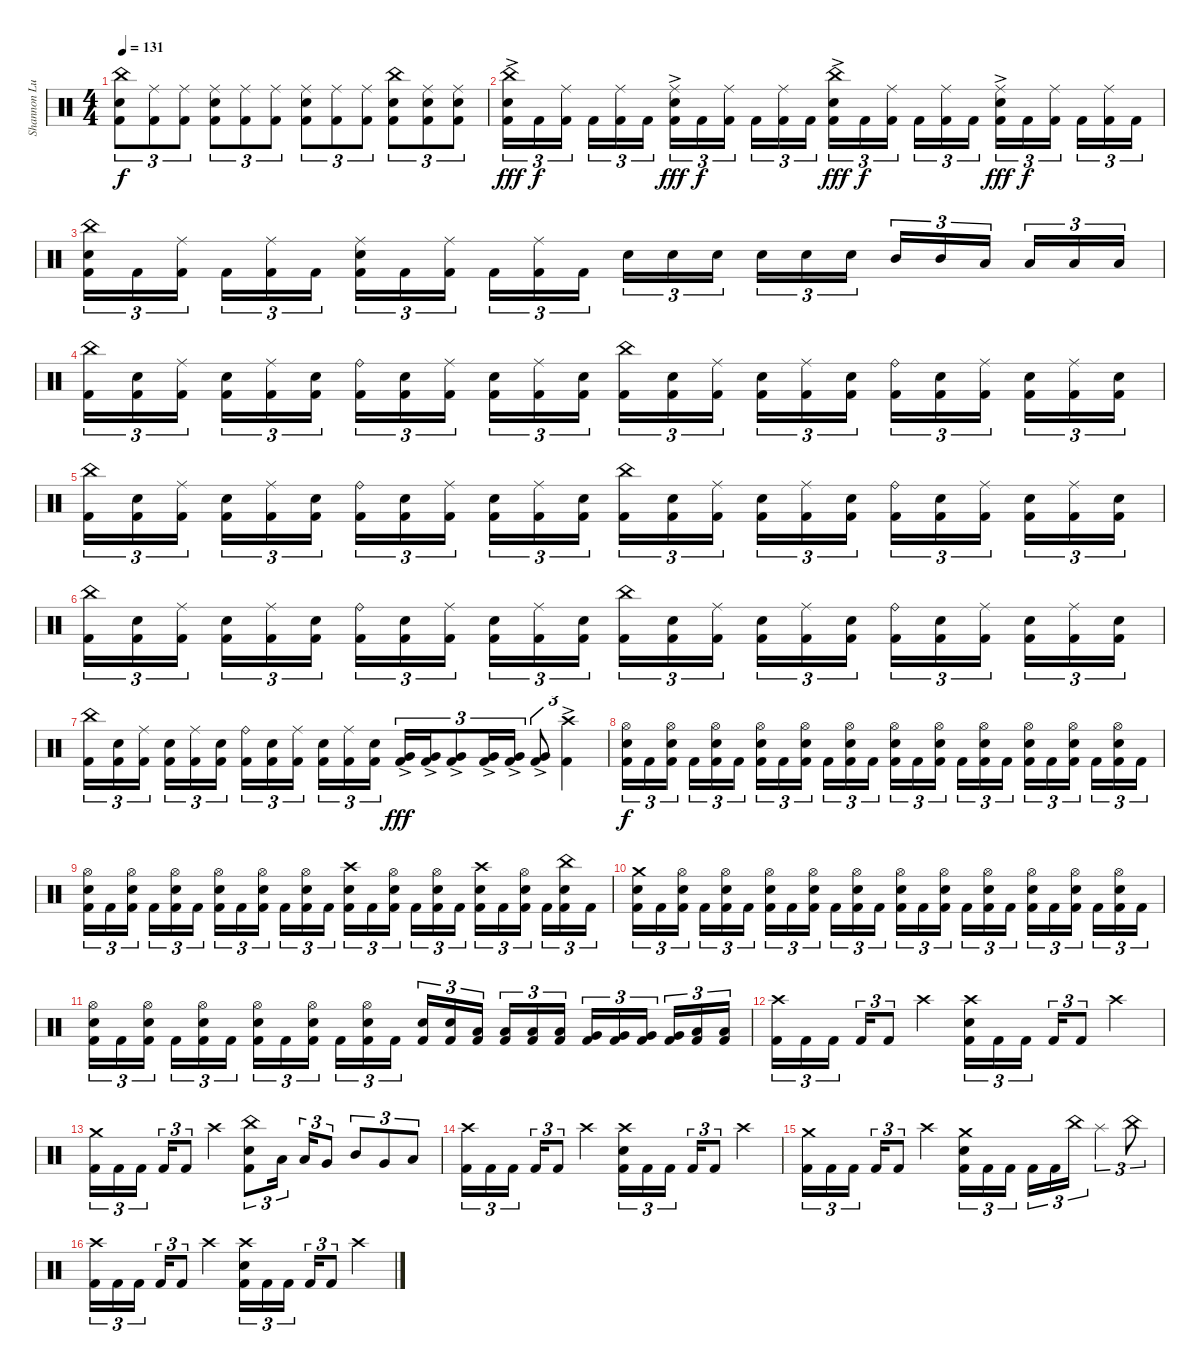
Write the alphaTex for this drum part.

\track ("Shannon Lucas [Drums (Since 2007)]" "Shannon Lu") {instrument percussion}
\staff {score}
\articulation defaults
\ts (4 4)
\tempo 131
\clef neutral
\ks c
("China (hit)" "Snare (hit) 2" "Kick (hit) 2").8{tu (3 2) dy f} ("Ride (middle)" "Kick (hit) 2").8{tu (3 2)} ("Ride (middle)" "Kick (hit) 2").8{tu (3 2)} ("Ride (middle)" "Snare (hit) 2" "Kick (hit) 2").8{tu (3 2)} ("Ride (middle)" "Kick (hit) 2").8{tu (3 2)} ("Ride (middle)" "Kick (hit) 2").8{tu (3 2)} ("Ride (middle)" "Snare (hit) 2" "Kick (hit) 2").8{tu (3 2)} ("Ride (middle)" "Kick (hit) 2").8{tu (3 2)} ("Ride (middle)" "Kick (hit) 2").8{tu (3 2)} ("China (hit)" "Snare (hit) 2" "Kick (hit) 2").8{tu (3 2)} ("Ride (middle)" "Snare (hit) 2" "Kick (hit) 2").8{tu (3 2)} ("Ride (middle)" "Snare (hit) 2" "Kick (hit) 2").8{tu (3 2)} |
("China (hit)"{ac} "Snare (hit) 2" "Kick (hit) 2").16{tu (3 2) dy fff} "Kick (hit) 2".16{tu (3 2) dy f} ("Ride (middle)" "Kick (hit) 2").16{tu (3 2)} "Kick (hit) 2".16{tu (3 2)} ("Ride (middle)" "Kick (hit) 2").16{tu (3 2)} "Kick (hit) 2".16{tu (3 2)} ("Ride (middle)"{ac} "Snare (hit) 2" "Kick (hit) 2").16{tu (3 2) dy fff} "Kick (hit) 2".16{tu (3 2) dy f} ("Ride (middle)" "Kick (hit) 2").16{tu (3 2)} "Kick (hit) 2".16{tu (3 2)} ("Ride (middle)" "Kick (hit) 2").16{tu (3 2)} "Kick (hit) 2".16{tu (3 2)} ("China (hit)"{ac} "Snare (hit) 2" "Kick (hit) 2").16{tu (3 2) dy fff} "Kick (hit) 2".16{tu (3 2) dy f} ("Ride (middle)" "Kick (hit) 2").16{tu (3 2)} "Kick (hit) 2".16{tu (3 2)} ("Ride (middle)" "Kick (hit) 2").16{tu (3 2)} "Kick (hit) 2".16{tu (3 2)} ("Ride (middle)"{ac} "Snare (hit) 2" "Kick (hit) 2").16{tu (3 2) dy fff} "Kick (hit) 2".16{tu (3 2) dy f} ("Ride (middle)" "Kick (hit) 2").16{tu (3 2)} "Kick (hit) 2".16{tu (3 2)} ("Ride (middle)" "Kick (hit) 2").16{tu (3 2)} "Kick (hit) 2".16{tu (3 2)} |
("China (hit)" "Snare (hit) 2" "Kick (hit) 2").16{tu (3 2)} "Kick (hit) 2".16{tu (3 2)} ("Ride (middle)" "Kick (hit) 2").16{tu (3 2)} "Kick (hit) 2".16{tu (3 2)} ("Ride (middle)" "Kick (hit) 2").16{tu (3 2)} "Kick (hit) 2".16{tu (3 2)} ("Ride (middle)" "Snare (hit) 2" "Kick (hit) 2").16{tu (3 2)} "Kick (hit) 2".16{tu (3 2)} ("Ride (middle)" "Kick (hit) 2").16{tu (3 2)} "Kick (hit) 2".16{tu (3 2)} ("Ride (middle)" "Kick (hit) 2").16{tu (3 2)} "Kick (hit) 2".16{tu (3 2)} "Snare (hit) 2".16{tu (3 2)} "Snare (hit) 2".16{tu (3 2)} "Snare (hit) 2".16{tu (3 2)} "Snare (hit) 2".16{tu (3 2)} "Snare (hit) 2".16{tu (3 2)} "Snare (hit) 2".16{tu (3 2)} "Mid Tom (hit)".16{tu (3 2)} "Mid Tom (hit)".16{tu (3 2)} "Low Tom (hit)".16{tu (3 2)} "Low Tom (hit)".16{tu (3 2)} "Low Floor Tom (hit)".16{tu (3 2)} "Low Floor Tom (hit)".16{tu (3 2)} |
("China (hit)" "Kick (hit) 2").16{tu (3 2)} ("Snare (hit) 2" "Kick (hit) 2").16{tu (3 2)} ("Ride (middle)" "Kick (hit) 2").16{tu (3 2)} ("Snare (hit) 2" "Kick (hit) 2").16{tu (3 2)} ("Ride (middle)" "Kick (hit) 2").16{tu (3 2)} ("Snare (hit) 2" "Kick (hit) 2").16{tu (3 2)} ("Ride (bell)" "Kick (hit) 2").16{tu (3 2)} ("Snare (hit) 2" "Kick (hit) 2").16{tu (3 2)} ("Ride (middle)" "Kick (hit) 2").16{tu (3 2)} ("Snare (hit) 2" "Kick (hit) 2").16{tu (3 2)} ("Ride (middle)" "Kick (hit) 2").16{tu (3 2)} ("Snare (hit) 2" "Kick (hit) 2").16{tu (3 2)} ("China (hit)" "Kick (hit) 2").16{tu (3 2)} ("Snare (hit) 2" "Kick (hit) 2").16{tu (3 2)} ("Ride (middle)" "Kick (hit) 2").16{tu (3 2)} ("Snare (hit) 2" "Kick (hit) 2").16{tu (3 2)} ("Ride (middle)" "Kick (hit) 2").16{tu (3 2)} ("Snare (hit) 2" "Kick (hit) 2").16{tu (3 2)} ("Ride (bell)" "Kick (hit) 2").16{tu (3 2)} ("Snare (hit) 2" "Kick (hit) 2").16{tu (3 2)} ("Ride (middle)" "Kick (hit) 2").16{tu (3 2)} ("Snare (hit) 2" "Kick (hit) 2").16{tu (3 2)} ("Ride (middle)" "Kick (hit) 2").16{tu (3 2)} ("Snare (hit) 2" "Kick (hit) 2").16{tu (3 2)} |
("China (hit)" "Kick (hit) 2").16{tu (3 2)} ("Snare (hit) 2" "Kick (hit) 2").16{tu (3 2)} ("Ride (middle)" "Kick (hit) 2").16{tu (3 2)} ("Snare (hit) 2" "Kick (hit) 2").16{tu (3 2)} ("Ride (middle)" "Kick (hit) 2").16{tu (3 2)} ("Snare (hit) 2" "Kick (hit) 2").16{tu (3 2)} ("Ride (bell)" "Kick (hit) 2").16{tu (3 2)} ("Snare (hit) 2" "Kick (hit) 2").16{tu (3 2)} ("Ride (middle)" "Kick (hit) 2").16{tu (3 2)} ("Snare (hit) 2" "Kick (hit) 2").16{tu (3 2)} ("Ride (middle)" "Kick (hit) 2").16{tu (3 2)} ("Snare (hit) 2" "Kick (hit) 2").16{tu (3 2)} ("China (hit)" "Kick (hit) 2").16{tu (3 2)} ("Snare (hit) 2" "Kick (hit) 2").16{tu (3 2)} ("Ride (middle)" "Kick (hit) 2").16{tu (3 2)} ("Snare (hit) 2" "Kick (hit) 2").16{tu (3 2)} ("Ride (middle)" "Kick (hit) 2").16{tu (3 2)} ("Snare (hit) 2" "Kick (hit) 2").16{tu (3 2)} ("Ride (bell)" "Kick (hit) 2").16{tu (3 2)} ("Snare (hit) 2" "Kick (hit) 2").16{tu (3 2)} ("Ride (middle)" "Kick (hit) 2").16{tu (3 2)} ("Snare (hit) 2" "Kick (hit) 2").16{tu (3 2)} ("Ride (middle)" "Kick (hit) 2").16{tu (3 2)} ("Snare (hit) 2" "Kick (hit) 2").16{tu (3 2)} |
("China (hit)" "Kick (hit) 2").16{tu (3 2)} ("Snare (hit) 2" "Kick (hit) 2").16{tu (3 2)} ("Ride (middle)" "Kick (hit) 2").16{tu (3 2)} ("Snare (hit) 2" "Kick (hit) 2").16{tu (3 2)} ("Ride (middle)" "Kick (hit) 2").16{tu (3 2)} ("Snare (hit) 2" "Kick (hit) 2").16{tu (3 2)} ("Ride (bell)" "Kick (hit) 2").16{tu (3 2)} ("Snare (hit) 2" "Kick (hit) 2").16{tu (3 2)} ("Ride (middle)" "Kick (hit) 2").16{tu (3 2)} ("Snare (hit) 2" "Kick (hit) 2").16{tu (3 2)} ("Ride (middle)" "Kick (hit) 2").16{tu (3 2)} ("Snare (hit) 2" "Kick (hit) 2").16{tu (3 2)} ("China (hit)" "Kick (hit) 2").16{tu (3 2)} ("Snare (hit) 2" "Kick (hit) 2").16{tu (3 2)} ("Ride (middle)" "Kick (hit) 2").16{tu (3 2)} ("Snare (hit) 2" "Kick (hit) 2").16{tu (3 2)} ("Ride (middle)" "Kick (hit) 2").16{tu (3 2)} ("Snare (hit) 2" "Kick (hit) 2").16{tu (3 2)} ("Ride (bell)" "Kick (hit) 2").16{tu (3 2)} ("Snare (hit) 2" "Kick (hit) 2").16{tu (3 2)} ("Ride (middle)" "Kick (hit) 2").16{tu (3 2)} ("Snare (hit) 2" "Kick (hit) 2").16{tu (3 2)} ("Ride (middle)" "Kick (hit) 2").16{tu (3 2)} ("Snare (hit) 2" "Kick (hit) 2").16{tu (3 2)} |
("China (hit)" "Kick (hit) 2").16{tu (3 2)} ("Snare (hit) 2" "Kick (hit) 2").16{tu (3 2)} ("Ride (middle)" "Kick (hit) 2").16{tu (3 2)} ("Snare (hit) 2" "Kick (hit) 2").16{tu (3 2)} ("Ride (middle)" "Kick (hit) 2").16{tu (3 2)} ("Snare (hit) 2" "Kick (hit) 2").16{tu (3 2)} ("Ride (bell)" "Kick (hit) 2").16{tu (3 2)} ("Snare (hit) 2" "Kick (hit) 2").16{tu (3 2)} ("Ride (middle)" "Kick (hit) 2").16{tu (3 2)} ("Snare (hit) 2" "Kick (hit) 2").16{tu (3 2)} ("Ride (middle)" "Kick (hit) 2").16{tu (3 2)} ("Snare (hit) 2" "Kick (hit) 2").16{tu (3 2)} ("Very Low Tom (hit)"{ac} "Kick (hit) 2"{ac}).16{tu (3 2) dy fff} ("Very Low Tom (hit)"{ac} "Kick (hit) 2"{ac}).16{tu (3 2)} ("Very Low Tom (hit)"{ac} "Kick (hit) 2"{ac}).8{tu (3 2)} ("Very Low Tom (hit)"{ac} "Kick (hit) 2"{ac}).16{tu (3 2)} ("Very Low Tom (hit)"{ac} "Kick (hit) 2"{ac}).16{tu (3 2)} ("Very Low Tom (hit)"{ac} "Kick (hit) 2"{ac}).8{tu (3 2)} ("Crash high (hit)"{ac} "Kick (hit) 2"{ac}).4{tu (3 2)} |
("Hi-Hat (open)" "Snare (hit) 2" "Kick (hit) 2").16{tu (3 2) dy f} "Kick (hit) 2".16{tu (3 2)} ("Hi-Hat (open)" "Snare (hit) 2" "Kick (hit) 2").16{tu (3 2)} "Kick (hit) 2".16{tu (3 2)} ("Hi-Hat (open)" "Snare (hit) 2" "Kick (hit) 2").16{tu (3 2)} "Kick (hit) 2".16{tu (3 2)} ("Hi-Hat (open)" "Snare (hit) 2" "Kick (hit) 2").16{tu (3 2)} "Kick (hit) 2".16{tu (3 2)} ("Hi-Hat (open)" "Snare (hit) 2" "Kick (hit) 2").16{tu (3 2)} "Kick (hit) 2".16{tu (3 2)} ("Hi-Hat (open)" "Snare (hit) 2" "Kick (hit) 2").16{tu (3 2)} "Kick (hit) 2".16{tu (3 2)} ("Hi-Hat (open)" "Snare (hit) 2" "Kick (hit) 2").16{tu (3 2)} "Kick (hit) 2".16{tu (3 2)} ("Hi-Hat (open)" "Snare (hit) 2" "Kick (hit) 2").16{tu (3 2)} "Kick (hit) 2".16{tu (3 2)} ("Hi-Hat (open)" "Snare (hit) 2" "Kick (hit) 2").16{tu (3 2)} "Kick (hit) 2".16{tu (3 2)} ("Hi-Hat (open)" "Snare (hit) 2" "Kick (hit) 2").16{tu (3 2)} "Kick (hit) 2".16{tu (3 2)} ("Hi-Hat (open)" "Snare (hit) 2" "Kick (hit) 2").16{tu (3 2)} "Kick (hit) 2".16{tu (3 2)} ("Hi-Hat (open)" "Snare (hit) 2" "Kick (hit) 2").16{tu (3 2)} "Kick (hit) 2".16{tu (3 2)} |
("Hi-Hat (open)" "Snare (hit) 2" "Kick (hit) 2").16{tu (3 2)} "Kick (hit) 2".16{tu (3 2)} ("Hi-Hat (open)" "Snare (hit) 2" "Kick (hit) 2").16{tu (3 2)} "Kick (hit) 2".16{tu (3 2)} ("Hi-Hat (open)" "Snare (hit) 2" "Kick (hit) 2").16{tu (3 2)} "Kick (hit) 2".16{tu (3 2)} ("Hi-Hat (open)" "Snare (hit) 2" "Kick (hit) 2").16{tu (3 2)} "Kick (hit) 2".16{tu (3 2)} ("Hi-Hat (open)" "Snare (hit) 2" "Kick (hit) 2").16{tu (3 2)} "Kick (hit) 2".16{tu (3 2)} ("Hi-Hat (open)" "Snare (hit) 2" "Kick (hit) 2").16{tu (3 2)} "Kick (hit) 2".16{tu (3 2)} ("Crash high (hit)" "Snare (hit) 2" "Kick (hit) 2").16{tu (3 2)} "Kick (hit) 2".16{tu (3 2)} ("Hi-Hat (open)" "Snare (hit) 2" "Kick (hit) 2").16{tu (3 2)} "Kick (hit) 2".16{tu (3 2)} ("Hi-Hat (open)" "Snare (hit) 2" "Kick (hit) 2").16{tu (3 2)} "Kick (hit) 2".16{tu (3 2)} ("Crash high (hit)" "Snare (hit) 2" "Kick (hit) 2").16{tu (3 2)} "Kick (hit) 2".16{tu (3 2)} ("Hi-Hat (open)" "Snare (hit) 2" "Kick (hit) 2").16{tu (3 2)} "Kick (hit) 2".16{tu (3 2)} ("China (hit)" "Snare (hit) 2" "Kick (hit) 2").16{tu (3 2)} "Kick (hit) 2".16{tu (3 2)} |
("Crash medium (hit)" "Snare (hit) 2" "Kick (hit) 2").16{tu (3 2)} "Kick (hit) 2".16{tu (3 2)} ("Hi-Hat (open)" "Snare (hit) 2" "Kick (hit) 2").16{tu (3 2)} "Kick (hit) 2".16{tu (3 2)} ("Hi-Hat (open)" "Snare (hit) 2" "Kick (hit) 2").16{tu (3 2)} "Kick (hit) 2".16{tu (3 2)} ("Hi-Hat (open)" "Snare (hit) 2" "Kick (hit) 2").16{tu (3 2)} "Kick (hit) 2".16{tu (3 2)} ("Hi-Hat (open)" "Snare (hit) 2" "Kick (hit) 2").16{tu (3 2)} "Kick (hit) 2".16{tu (3 2)} ("Hi-Hat (open)" "Snare (hit) 2" "Kick (hit) 2").16{tu (3 2)} "Kick (hit) 2".16{tu (3 2)} ("Hi-Hat (open)" "Snare (hit) 2" "Kick (hit) 2").16{tu (3 2)} "Kick (hit) 2".16{tu (3 2)} ("Hi-Hat (open)" "Snare (hit) 2" "Kick (hit) 2").16{tu (3 2)} "Kick (hit) 2".16{tu (3 2)} ("Hi-Hat (open)" "Snare (hit) 2" "Kick (hit) 2").16{tu (3 2)} "Kick (hit) 2".16{tu (3 2)} ("Hi-Hat (open)" "Snare (hit) 2" "Kick (hit) 2").16{tu (3 2)} "Kick (hit) 2".16{tu (3 2)} ("Hi-Hat (open)" "Snare (hit) 2" "Kick (hit) 2").16{tu (3 2)} "Kick (hit) 2".16{tu (3 2)} ("Hi-Hat (open)" "Snare (hit) 2" "Kick (hit) 2").16{tu (3 2)} "Kick (hit) 2".16{tu (3 2)} |
("Hi-Hat (open)" "Snare (hit) 2" "Kick (hit) 2").16{tu (3 2)} "Kick (hit) 2".16{tu (3 2)} ("Hi-Hat (open)" "Snare (hit) 2" "Kick (hit) 2").16{tu (3 2)} "Kick (hit) 2".16{tu (3 2)} ("Hi-Hat (open)" "Snare (hit) 2" "Kick (hit) 2").16{tu (3 2)} "Kick (hit) 2".16{tu (3 2)} ("Hi-Hat (open)" "Snare (hit) 2" "Kick (hit) 2").16{tu (3 2)} "Kick (hit) 2".16{tu (3 2)} ("Hi-Hat (open)" "Snare (hit) 2" "Kick (hit) 2").16{tu (3 2)} "Kick (hit) 2".16{tu (3 2)} ("Hi-Hat (open)" "Snare (hit) 2" "Kick (hit) 2").16{tu (3 2)} "Kick (hit) 2".16{tu (3 2)} ("Snare (hit) 2" "Kick (hit) 2").16{tu (3 2)} ("Snare (hit) 2" "Kick (hit) 2").16{tu (3 2)} ("Low Tom (hit)" "Kick (hit) 2").16{tu (3 2)} ("Low Tom (hit)" "Kick (hit) 2").16{tu (3 2)} ("Low Floor Tom (hit)" "Kick (hit) 2").16{tu (3 2)} ("Low Floor Tom (hit)" "Kick (hit) 2").16{tu (3 2)} ("Very Low Tom (hit)" "Kick (hit) 2").16{tu (3 2)} ("Very Low Tom (hit)" "Kick (hit) 2").16{tu (3 2)} ("Very Low Tom (hit)" "Kick (hit) 2").16{tu (3 2)} ("Very Low Tom (hit)" "Kick (hit) 2").16{tu (3 2)} ("Low Floor Tom (hit)" "Kick (hit) 2").16{tu (3 2)} ("Low Floor Tom (hit)" "Kick (hit) 2").16{tu (3 2)} |
("Crash high (hit)" "Kick (hit) 2").16{tu (3 2)} "Kick (hit) 2".16{tu (3 2)} "Kick (hit) 2".16{tu (3 2)} "Kick (hit) 2".16{tu (3 2)} "Kick (hit) 2".8{tu (3 2)} "Crash high (hit)".4 ("Snare (hit) 2" "Crash high (hit)" "Kick (hit) 2").16{tu (3 2)} "Kick (hit) 2".16{tu (3 2)} "Kick (hit) 2".16{tu (3 2)} "Kick (hit) 2".16{tu (3 2)} "Kick (hit) 2".8{tu (3 2)} "Crash high (hit)".4 |
("Crash medium (hit)" "Kick (hit) 2").16{tu (3 2)} "Kick (hit) 2".16{tu (3 2)} "Kick (hit) 2".16{tu (3 2)} "Kick (hit) 2".16{tu (3 2)} "Kick (hit) 2".8{tu (3 2)} "Crash high (hit)".4 ("Snare (hit) 2" "China (hit)" "Kick (hit) 2").8{tu (3 2)} "Low Tom (hit)".16{tu (3 2)} "Low Tom (hit)".16{tu (3 2)} "Very Low Tom (hit)".8{tu (3 2)} "Mid Tom (hit)".8{tu (3 2)} "Very Low Tom (hit)".8{tu (3 2)} "Low Floor Tom (hit)".8{tu (3 2)} |
("Crash high (hit)" "Kick (hit) 2").16{tu (3 2)} "Kick (hit) 2".16{tu (3 2)} "Kick (hit) 2".16{tu (3 2)} "Kick (hit) 2".16{tu (3 2)} "Kick (hit) 2".8{tu (3 2)} "Crash high (hit)".4 ("Snare (hit) 2" "Crash high (hit)" "Kick (hit) 2").16{tu (3 2)} "Kick (hit) 2".16{tu (3 2)} "Kick (hit) 2".16{tu (3 2)} "Kick (hit) 2".16{tu (3 2)} "Kick (hit) 2".8{tu (3 2)} "Crash high (hit)".4 |
("Crash medium (hit)" "Kick (hit) 2").16{tu (3 2)} "Kick (hit) 2".16{tu (3 2)} "Kick (hit) 2".16{tu (3 2)} "Kick (hit) 2".16{tu (3 2)} "Kick (hit) 2".8{tu (3 2)} "Crash high (hit)".4 ("Snare (hit) 2" "Crash medium (hit)" "Kick (hit) 2").16{tu (3 2)} "Kick (hit) 2".16{tu (3 2)} "Kick (hit) 2".16{tu (3 2)} "Kick (hit) 2".16{tu (3 2)} "Kick (hit) 2".16{tu (3 2)} "China (hit)".16{tu (3 2)} "Splash (hit)".4{tu (3 2)} "China (hit)".8{tu (3 2)} |
("Crash high (hit)" "Kick (hit) 2").16{tu (3 2)} "Kick (hit) 2".16{tu (3 2)} "Kick (hit) 2".16{tu (3 2)} "Kick (hit) 2".16{tu (3 2)} "Kick (hit) 2".8{tu (3 2)} "Crash high (hit)".4 ("Snare (hit) 2" "Crash high (hit)" "Kick (hit) 2").16{tu (3 2)} "Kick (hit) 2".16{tu (3 2)} "Kick (hit) 2".16{tu (3 2)} "Kick (hit) 2".16{tu (3 2)} "Kick (hit) 2".8{tu (3 2)} "Crash high (hit)".4
